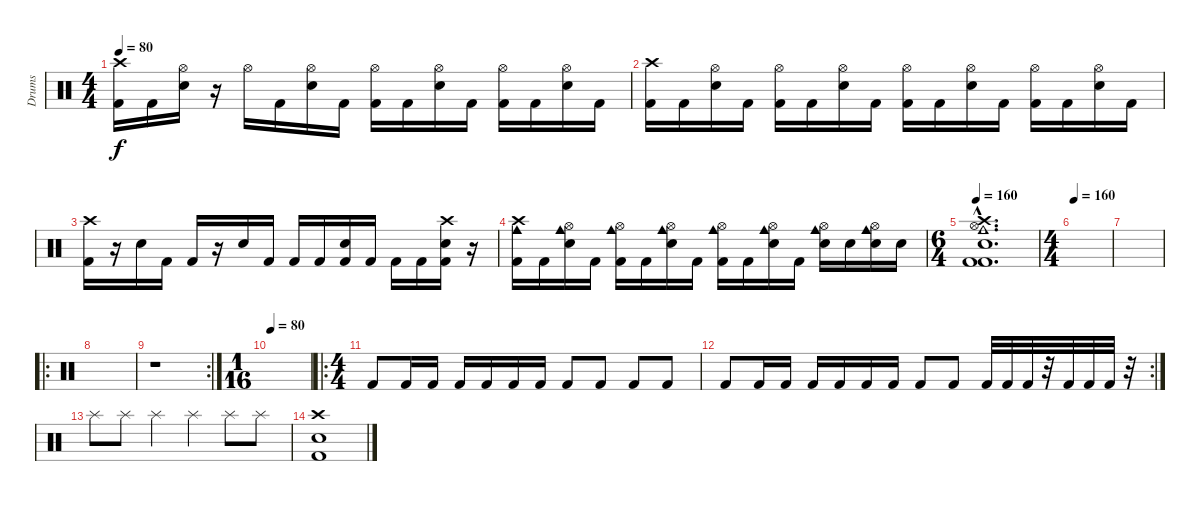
\track ("Drums" "Drums") {instrument percussion}
\staff {score}
\articulation defaults
\ts (4 4)
\tempo 80
\clef neutral
\ks c
("Crash high (hit)" "Kick (hit) 2").16{dy f} "Kick (hit) 2".16 ("Hi-Hat (open)" "Electric Snare (hit)").16 r.16 "Hi-Hat (open)".16 "Kick (hit) 2".16 ("Hi-Hat (open)" "Electric Snare (hit)").16 "Kick (hit) 2".16 ("Hi-Hat (open)" "Kick (hit) 2").16 "Kick (hit) 2".16 ("Hi-Hat (open)" "Electric Snare (hit)").16 "Kick (hit) 2".16 ("Hi-Hat (open)" "Kick (hit) 2").16 "Kick (hit) 2".16 ("Hi-Hat (open)" "Electric Snare (hit)").16 "Kick (hit) 2".16 |
("Crash high (hit)" "Kick (hit) 2").16 "Kick (hit) 2".16 ("Hi-Hat (open)" "Electric Snare (hit)").16 "Kick (hit) 2".16 ("Hi-Hat (open)" "Kick (hit) 2").16 "Kick (hit) 2".16 ("Hi-Hat (open)" "Electric Snare (hit)").16 "Kick (hit) 2".16 ("Hi-Hat (open)" "Kick (hit) 2").16 "Kick (hit) 2".16 ("Hi-Hat (open)" "Electric Snare (hit)").16 "Kick (hit) 2".16 ("Hi-Hat (open)" "Kick (hit) 2").16 "Kick (hit) 2".16 ("Hi-Hat (open)" "Electric Snare (hit)").16 "Kick (hit) 2".16 |
("Crash high (hit)" "Kick (hit) 2").16 r.16 "Electric Snare (hit)".16 "Kick (hit) 2".16 "Kick (hit) 2".16 r.16 "Electric Snare (hit)".16 "Kick (hit) 2".16 "Kick (hit) 2".16 "Kick (hit) 2".16 ("Electric Snare (hit)" "Kick (hit) 2").16 "Kick (hit) 2".16 "Kick (hit) 2".16 "Kick (hit) 2".16 ("Crash high (hit)" "Electric Snare (hit)" "Kick (hit) 2").16 r.16 |
("Cowbell medium (hit)" "Crash high (hit)" "Kick (hit) 2").16 "Kick (hit) 2".16 ("Cowbell medium (hit)" "Hi-Hat (open)" "Electric Snare (hit)").16 "Kick (hit) 2".16 ("Cowbell medium (hit)" "Hi-Hat (open)" "Kick (hit) 2").16 "Kick (hit) 2".16 ("Cowbell medium (hit)" "Hi-Hat (open)" "Electric Snare (hit)").16 "Kick (hit) 2".16 ("Cowbell medium (hit)" "Hi-Hat (open)" "Kick (hit) 2").16 "Kick (hit) 2".16 ("Cowbell medium (hit)" "Hi-Hat (open)" "Electric Snare (hit)").16 "Kick (hit) 2".16 ("Cowbell medium (hit)" "Hi-Hat (open)" "Electric Snare (hit)").16 "Electric Snare (hit)".16 ("Cowbell medium (hit)" "Hi-Hat (open)" "Electric Snare (hit)").16 "Electric Snare (hit)".16 |
\ts (6 4)
\tempo 160
("Hi-Hat (open)"{hac} "Crash high (hit)"{hac} "Electric Snare (hit)"{hac} "Kick (hit) 2"{hac} "Kick (hit) 2"{hac} "Cowbell medium (hit)"{hac}).1{d volume 0} |
\ts (4 4)
\tempo 160
|
|
\ro
|
\rc 2
r.1 |
\ts (1 16)
\tempo 80
|
\ro
\ts (4 4)
"Kick (hit) 2".8 "Kick (hit) 2".16 "Kick (hit) 2".16 "Kick (hit) 2".16 "Kick (hit) 2".16 "Kick (hit) 2".16 "Kick (hit) 2".16 "Kick (hit) 2".8 "Kick (hit) 2".8 "Kick (hit) 2".8 "Kick (hit) 2".8 |
\rc 2 "Kick (hit) 2".8 "Kick (hit) 2".16 "Kick (hit) 2".16 "Kick (hit) 2".16 "Kick (hit) 2".16 "Kick (hit) 2".16 "Kick (hit) 2".16 "Kick (hit) 2".8 "Kick (hit) 2".8 "Kick (hit) 2".32 "Kick (hit) 2".32 "Kick (hit) 2".32
r.32 "Kick (hit) 2".32 "Kick (hit) 2".32 "Kick (hit) 2".32 r.32 |
"Splash (hit)".8 "Splash (hit)".8 "Splash (hit)".4 "Splash (hit)".4 "Splash (hit)".8 "Splash (hit)".8 |
("Electric Snare (hit)" "Kick (hit) 2" "Crash high (hit)").1
